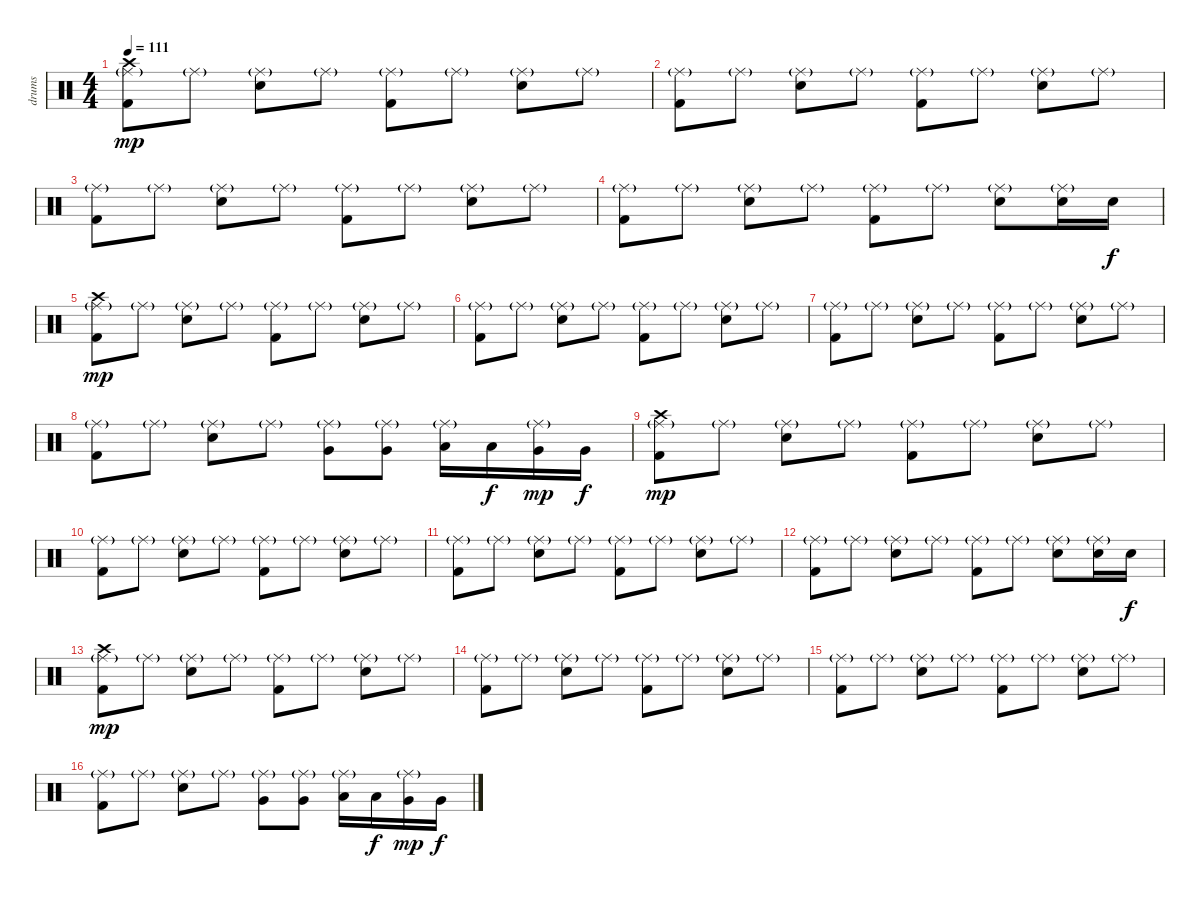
\track ("drums" "drums") {instrument percussion}
\staff {score}
\articulation defaults
\ts (4 4)
\tempo 111
\clef neutral
\ks c
("Kick (hit) 2" "Ride (middle)"{g} "Crash high (hit)").8{dy mp} "Ride (middle)"{g}.8 ("Electric Snare (hit)" "Ride (middle)"{g}).8 "Ride (middle)"{g}.8 ("Kick (hit) 2" "Ride (middle)"{g}).8 "Ride (middle)"{g}.8 ("Electric Snare (hit)" "Ride (middle)"{g}).8 "Ride (middle)"{g}.8 |
("Kick (hit) 2" "Ride (middle)"{g}).8 "Ride (middle)"{g}.8 ("Electric Snare (hit)" "Ride (middle)"{g}).8 "Ride (middle)"{g}.8 ("Kick (hit) 2" "Ride (middle)"{g}).8 "Ride (middle)"{g}.8 ("Electric Snare (hit)" "Ride (middle)"{g}).8 "Ride (middle)"{g}.8 |
("Kick (hit) 2" "Ride (middle)"{g}).8 "Ride (middle)"{g}.8 ("Electric Snare (hit)" "Ride (middle)"{g}).8 "Ride (middle)"{g}.8 ("Kick (hit) 2" "Ride (middle)"{g}).8 "Ride (middle)"{g}.8 ("Electric Snare (hit)" "Ride (middle)"{g}).8 "Ride (middle)"{g}.8 |
("Kick (hit) 2" "Ride (middle)"{g}).8 "Ride (middle)"{g}.8 ("Electric Snare (hit)" "Ride (middle)"{g}).8 "Ride (middle)"{g}.8 ("Kick (hit) 2" "Ride (middle)"{g}).8 "Ride (middle)"{g}.8 ("Electric Snare (hit)" "Ride (middle)"{g}).8 ("Electric Snare (hit)" "Ride (middle)"{g}).16 "Electric Snare (hit)".16{dy f} |
("Kick (hit) 2" "Ride (middle)"{g} "Crash high (hit)").8{dy mp} "Ride (middle)"{g}.8 ("Electric Snare (hit)" "Ride (middle)"{g}).8 "Ride (middle)"{g}.8 ("Kick (hit) 2" "Ride (middle)"{g}).8 "Ride (middle)"{g}.8 ("Electric Snare (hit)" "Ride (middle)"{g}).8 "Ride (middle)"{g}.8 |
("Kick (hit) 2" "Ride (middle)"{g}).8 "Ride (middle)"{g}.8 ("Electric Snare (hit)" "Ride (middle)"{g}).8 "Ride (middle)"{g}.8 ("Kick (hit) 2" "Ride (middle)"{g}).8 "Ride (middle)"{g}.8 ("Electric Snare (hit)" "Ride (middle)"{g}).8 "Ride (middle)"{g}.8 |
("Kick (hit) 2" "Ride (middle)"{g}).8 "Ride (middle)"{g}.8 ("Electric Snare (hit)" "Ride (middle)"{g}).8 "Ride (middle)"{g}.8 ("Kick (hit) 2" "Ride (middle)"{g}).8 "Ride (middle)"{g}.8 ("Electric Snare (hit)" "Ride (middle)"{g}).8 "Ride (middle)"{g}.8 |
("Kick (hit) 2" "Ride (middle)"{g}).8 "Ride (middle)"{g}.8 ("Electric Snare (hit)" "Ride (middle)"{g}).8 "Ride (middle)"{g}.8 ("Very Low Tom (hit)" "Ride (middle)"{g}).8 ("Very Low Tom (hit)" "Ride (middle)"{g}).8 ("Low Floor Tom (hit)" "Ride (middle)"{g}).16 "Low Floor Tom (hit)".16{dy f} ("Very Low Tom (hit)" "Ride (middle)"{g}).16{dy mp} "Very Low Tom (hit)".16{dy f} |
("Kick (hit) 2" "Ride (middle)"{g} "Crash high (hit)").8{dy mp} "Ride (middle)"{g}.8 ("Electric Snare (hit)" "Ride (middle)"{g}).8 "Ride (middle)"{g}.8 ("Kick (hit) 2" "Ride (middle)"{g}).8 "Ride (middle)"{g}.8 ("Electric Snare (hit)" "Ride (middle)"{g}).8 "Ride (middle)"{g}.8 |
("Kick (hit) 2" "Ride (middle)"{g}).8 "Ride (middle)"{g}.8 ("Electric Snare (hit)" "Ride (middle)"{g}).8 "Ride (middle)"{g}.8 ("Kick (hit) 2" "Ride (middle)"{g}).8 "Ride (middle)"{g}.8 ("Electric Snare (hit)" "Ride (middle)"{g}).8 "Ride (middle)"{g}.8 |
("Kick (hit) 2" "Ride (middle)"{g}).8 "Ride (middle)"{g}.8 ("Electric Snare (hit)" "Ride (middle)"{g}).8 "Ride (middle)"{g}.8 ("Kick (hit) 2" "Ride (middle)"{g}).8 "Ride (middle)"{g}.8 ("Electric Snare (hit)" "Ride (middle)"{g}).8 "Ride (middle)"{g}.8 |
("Kick (hit) 2" "Ride (middle)"{g}).8 "Ride (middle)"{g}.8 ("Electric Snare (hit)" "Ride (middle)"{g}).8 "Ride (middle)"{g}.8 ("Kick (hit) 2" "Ride (middle)"{g}).8 "Ride (middle)"{g}.8 ("Electric Snare (hit)" "Ride (middle)"{g}).8 ("Electric Snare (hit)" "Ride (middle)"{g}).16 "Electric Snare (hit)".16{dy f} |
("Kick (hit) 2" "Ride (middle)"{g} "Crash high (hit)").8{dy mp} "Ride (middle)"{g}.8 ("Electric Snare (hit)" "Ride (middle)"{g}).8 "Ride (middle)"{g}.8 ("Kick (hit) 2" "Ride (middle)"{g}).8 "Ride (middle)"{g}.8 ("Electric Snare (hit)" "Ride (middle)"{g}).8 "Ride (middle)"{g}.8 |
("Kick (hit) 2" "Ride (middle)"{g}).8 "Ride (middle)"{g}.8 ("Electric Snare (hit)" "Ride (middle)"{g}).8 "Ride (middle)"{g}.8 ("Kick (hit) 2" "Ride (middle)"{g}).8 "Ride (middle)"{g}.8 ("Electric Snare (hit)" "Ride (middle)"{g}).8 "Ride (middle)"{g}.8 |
("Kick (hit) 2" "Ride (middle)"{g}).8 "Ride (middle)"{g}.8 ("Electric Snare (hit)" "Ride (middle)"{g}).8 "Ride (middle)"{g}.8 ("Kick (hit) 2" "Ride (middle)"{g}).8 "Ride (middle)"{g}.8 ("Electric Snare (hit)" "Ride (middle)"{g}).8 "Ride (middle)"{g}.8 |
("Kick (hit) 2" "Ride (middle)"{g}).8 "Ride (middle)"{g}.8 ("Electric Snare (hit)" "Ride (middle)"{g}).8 "Ride (middle)"{g}.8 ("Very Low Tom (hit)" "Ride (middle)"{g}).8 ("Very Low Tom (hit)" "Ride (middle)"{g}).8 ("Low Floor Tom (hit)" "Ride (middle)"{g}).16 "Low Floor Tom (hit)".16{dy f} ("Very Low Tom (hit)" "Ride (middle)"{g}).16{dy mp} "Very Low Tom (hit)".16{dy f}
